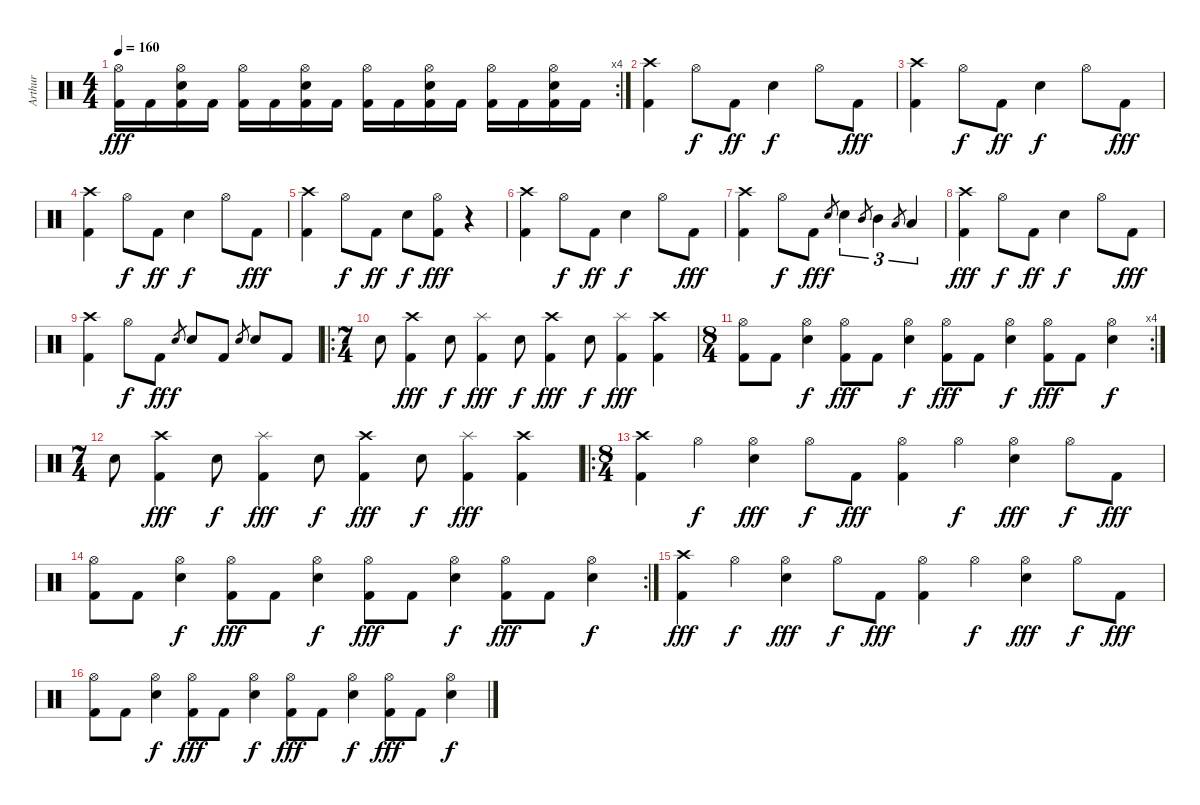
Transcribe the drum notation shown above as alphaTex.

\track ("Arthur" "Arthur") {instrument percussion}
\staff {score}
\articulation defaults
\rc 4
\ts (4 4)
\tempo 160
\clef neutral
\ks c
("Hi-Hat (open)" "Kick (hit) 2").16{dy fff} "Kick (hit) 2".16 ("Hi-Hat (open)" "Electric Snare (hit)" "Kick (hit) 2").16 "Kick (hit) 2".16 ("Hi-Hat (open)" "Kick (hit) 2").16 "Kick (hit) 2".16 ("Hi-Hat (open)" "Electric Snare (hit)" "Kick (hit) 2").16 "Kick (hit) 2".16 ("Hi-Hat (open)" "Kick (hit) 2").16 "Kick (hit) 2".16 ("Hi-Hat (open)" "Electric Snare (hit)" "Kick (hit) 2").16 "Kick (hit) 2".16 ("Hi-Hat (open)" "Kick (hit) 2").16 "Kick (hit) 2".16 ("Hi-Hat (open)" "Electric Snare (hit)" "Kick (hit) 2").16 "Kick (hit) 2".16 |
("Crash high (hit)" "Kick (hit) 2").4 "Hi-Hat (open)".8{dy f} "Kick (hit) 2".8{dy ff} "Electric Snare (hit)".4{dy f} "Hi-Hat (open)".8 "Kick (hit) 2".8{dy fff} |
("Crash high (hit)" "Kick (hit) 2").4 "Hi-Hat (open)".8{dy f} "Kick (hit) 2".8{dy ff} "Electric Snare (hit)".4{dy f} "Hi-Hat (open)".8 "Kick (hit) 2".8{dy fff} |
("Crash high (hit)" "Kick (hit) 2").4 "Hi-Hat (open)".8{dy f} "Kick (hit) 2".8{dy ff} "Electric Snare (hit)".4{dy f} "Hi-Hat (open)".8 "Kick (hit) 2".8{dy fff} |
("Crash high (hit)" "Kick (hit) 2").4 "Hi-Hat (open)".8{dy f} "Kick (hit) 2".8{dy ff} "Electric Snare (hit)".8{dy f} ("Hi-Hat (open)" "Kick (hit) 2").8{dy fff} r.4 |
("Crash high (hit)" "Kick (hit) 2").4 "Hi-Hat (open)".8{dy f} "Kick (hit) 2".8{dy ff} "Electric Snare (hit)".4{dy f} "Hi-Hat (open)".8 "Kick (hit) 2".8{dy fff} |
("Crash high (hit)" "Kick (hit) 2").4 "Hi-Hat (open)".8{dy f} "Kick (hit) 2".8{dy ff} "Electric Snare (hit)".8{gr dy f} "Electric Snare (hit)".4{tu (3 2)} "Mid Tom (hit)".8{gr} "Mid Tom (hit)".4{tu (3 2)} "Low Tom (hit)".8{gr} "Low Tom (hit)".4{tu (3 2)} |
("Crash high (hit)" "Kick (hit) 2").4{dy fff} "Hi-Hat (open)".8{dy f} "Kick (hit) 2".8{dy ff} "Electric Snare (hit)".4{dy f} "Hi-Hat (open)".8 "Kick (hit) 2".8{dy fff} |
("Crash high (hit)" "Kick (hit) 2").4 "Hi-Hat (open)".8{dy f} "Kick (hit) 2".8{dy ff} "Electric Snare (hit)".8{gr dy f} "Electric Snare (hit)".8 "Kick (hit) 2".8 "Electric Snare (hit)".8{gr} "Electric Snare (hit)".8 "Kick (hit) 2".8 |
\ro
\ts (7 4)
"Electric Snare (hit)".8 ("Crash high (hit)" "Kick (hit) 2").4{dy fff} "Electric Snare (hit)".8{dy f} ("Splash (hit)" "Kick (hit) 2").4{dy fff} "Electric Snare (hit)".8{dy f} ("Crash high (hit)" "Kick (hit) 2").4{dy fff} "Electric Snare (hit)".8{dy f} ("Splash (hit)" "Kick (hit) 2").4{dy fff} ("Crash high (hit)" "Kick (hit) 2").4 |
\rc 4
\ts (8 4)
("Hi-Hat (open)" "Kick (hit) 2").8 "Kick (hit) 2".8 ("Hi-Hat (open)" "Electric Snare (hit)").4{dy f} ("Hi-Hat (open)" "Kick (hit) 2").8{dy fff} "Kick (hit) 2".8 ("Hi-Hat (open)" "Electric Snare (hit)").4{dy f} ("Hi-Hat (open)" "Kick (hit) 2").8{dy fff} "Kick (hit) 2".8 ("Hi-Hat (open)" "Electric Snare (hit)").4{dy f} ("Hi-Hat (open)" "Kick (hit) 2").8{dy fff} "Kick (hit) 2".8 ("Hi-Hat (open)" "Electric Snare (hit)").4{dy f} |
\ts (7 4)
"Electric Snare (hit)".8 ("Crash high (hit)" "Kick (hit) 2").4{dy fff} "Electric Snare (hit)".8{dy f} ("Splash (hit)" "Kick (hit) 2").4{dy fff} "Electric Snare (hit)".8{dy f} ("Crash high (hit)" "Kick (hit) 2").4{dy fff} "Electric Snare (hit)".8{dy f} ("Splash (hit)" "Kick (hit) 2").4{dy fff} ("Crash high (hit)" "Kick (hit) 2").4 |
\ro
\ts (8 4)
("Crash high (hit)" "Kick (hit) 2").4 "Hi-Hat (open)".4{dy f} ("Hi-Hat (open)" "Electric Snare (hit)").4{dy fff} "Hi-Hat (open)".8{dy f} "Kick (hit) 2".8{dy fff} ("Hi-Hat (open)" "Kick (hit) 2").4 "Hi-Hat (open)".4{dy f} ("Hi-Hat (open)" "Electric Snare (hit)").4{dy fff} "Hi-Hat (open)".8{dy f} "Kick (hit) 2".8{dy fff} |
\rc 2
("Hi-Hat (open)" "Kick (hit) 2").8 "Kick (hit) 2".8 ("Hi-Hat (open)" "Electric Snare (hit)").4{dy f} ("Hi-Hat (open)" "Kick (hit) 2").8{dy fff} "Kick (hit) 2".8 ("Hi-Hat (open)" "Electric Snare (hit)").4{dy f} ("Hi-Hat (open)" "Kick (hit) 2").8{dy fff} "Kick (hit) 2".8 ("Hi-Hat (open)" "Electric Snare (hit)").4{dy f} ("Hi-Hat (open)" "Kick (hit) 2").8{dy fff} "Kick (hit) 2".8 ("Hi-Hat (open)" "Electric Snare (hit)").4{dy f} |
("Crash high (hit)" "Kick (hit) 2").4{dy fff} "Hi-Hat (open)".4{dy f} ("Hi-Hat (open)" "Electric Snare (hit)").4{dy fff} "Hi-Hat (open)".8{dy f} "Kick (hit) 2".8{dy fff} ("Hi-Hat (open)" "Kick (hit) 2").4 "Hi-Hat (open)".4{dy f} ("Hi-Hat (open)" "Electric Snare (hit)").4{dy fff} "Hi-Hat (open)".8{dy f} "Kick (hit) 2".8{dy fff} |
("Hi-Hat (open)" "Kick (hit) 2").8 "Kick (hit) 2".8 ("Hi-Hat (open)" "Electric Snare (hit)").4{dy f} ("Hi-Hat (open)" "Kick (hit) 2").8{dy fff} "Kick (hit) 2".8 ("Hi-Hat (open)" "Electric Snare (hit)").4{dy f} ("Hi-Hat (open)" "Kick (hit) 2").8{dy fff} "Kick (hit) 2".8 ("Hi-Hat (open)" "Electric Snare (hit)").4{dy f} ("Hi-Hat (open)" "Kick (hit) 2").8{dy fff} "Kick (hit) 2".8 ("Hi-Hat (open)" "Electric Snare (hit)").4{dy f}
